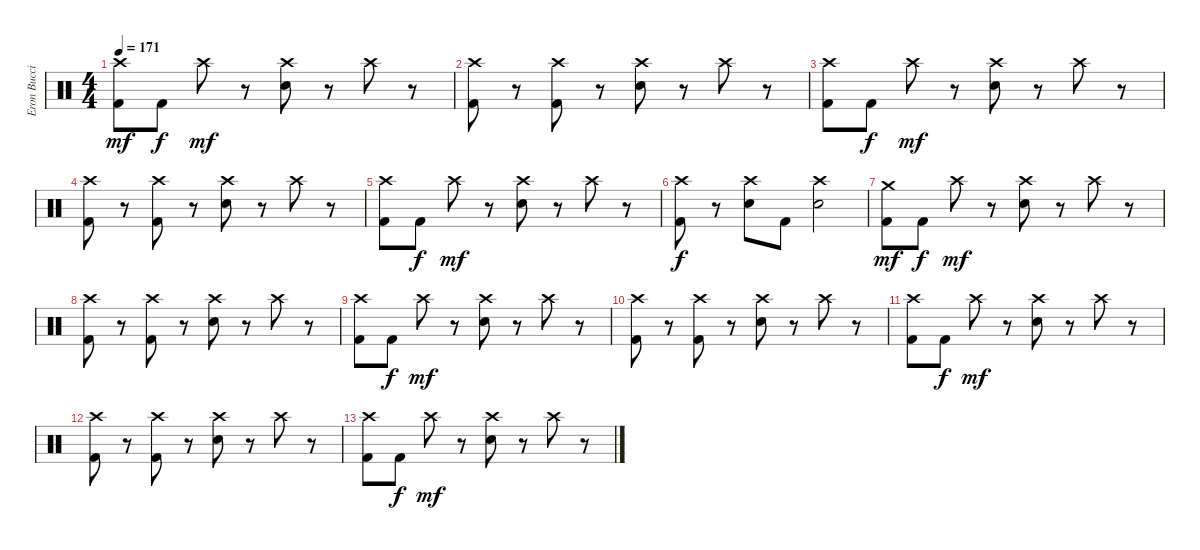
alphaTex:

\track ("Eron Bucciarelli (Drums)" "Eron Bucci") {instrument percussion}
\staff {score}
\articulation defaults
\ts (4 4)
\tempo 171
\clef neutral
\ks c
("Crash high (hit)" "Kick (hit) 2").8{dy mf} "Kick (hit) 2".8{dy f} "Crash high (hit)".8{dy mf} r.8 ("Crash high (hit)" "Snare (hit) 2").8 r.8 "Crash high (hit)".8 r.8 |
("Crash high (hit)" "Kick (hit) 2").8 r.8 ("Crash high (hit)" "Kick (hit) 2").8 r.8 ("Crash high (hit)" "Snare (hit) 2").8 r.8 "Crash high (hit)".8 r.8 |
("Crash high (hit)" "Kick (hit) 2").8 "Kick (hit) 2".8{dy f} "Crash high (hit)".8{dy mf} r.8 ("Crash high (hit)" "Snare (hit) 2").8 r.8 "Crash high (hit)".8 r.8 |
("Crash high (hit)" "Kick (hit) 2").8 r.8 ("Crash high (hit)" "Kick (hit) 2").8 r.8 ("Crash high (hit)" "Snare (hit) 2").8 r.8 "Crash high (hit)".8 r.8 |
("Crash high (hit)" "Kick (hit) 2").8 "Kick (hit) 2".8{dy f} "Crash high (hit)".8{dy mf} r.8 ("Crash high (hit)" "Snare (hit) 2").8 r.8 "Crash high (hit)".8 r.8 |
("Crash high (hit)" "Kick (hit) 2").8{dy f} r.8 ("Crash high (hit)" "Snare (hit) 2").8 "Kick (hit) 2".8 ("Crash high (hit)" "Snare (hit) 2").2 |
("Crash medium (hit)" "Kick (hit) 2").8{dy mf} "Kick (hit) 2".8{dy f} "Crash high (hit)".8{dy mf} r.8 ("Crash high (hit)" "Snare (hit) 2").8 r.8 "Crash high (hit)".8 r.8 |
("Crash high (hit)" "Kick (hit) 2").8 r.8 ("Crash high (hit)" "Kick (hit) 2").8 r.8 ("Crash high (hit)" "Snare (hit) 2").8 r.8 "Crash high (hit)".8 r.8 |
("Crash high (hit)" "Kick (hit) 2").8 "Kick (hit) 2".8{dy f} "Crash high (hit)".8{dy mf} r.8 ("Crash high (hit)" "Snare (hit) 2").8 r.8 "Crash high (hit)".8 r.8 |
("Crash high (hit)" "Kick (hit) 2").8 r.8 ("Crash high (hit)" "Kick (hit) 2").8 r.8 ("Crash high (hit)" "Snare (hit) 2").8 r.8 "Crash high (hit)".8 r.8 |
("Crash high (hit)" "Kick (hit) 2").8 "Kick (hit) 2".8{dy f} "Crash high (hit)".8{dy mf} r.8 ("Crash high (hit)" "Snare (hit) 2").8 r.8 "Crash high (hit)".8 r.8 |
("Crash high (hit)" "Kick (hit) 2").8 r.8 ("Crash high (hit)" "Kick (hit) 2").8 r.8 ("Crash high (hit)" "Snare (hit) 2").8 r.8 "Crash high (hit)".8 r.8 |
("Crash high (hit)" "Kick (hit) 2").8 "Kick (hit) 2".8{dy f} "Crash high (hit)".8{dy mf} r.8 ("Crash high (hit)" "Snare (hit) 2").8 r.8 "Crash high (hit)".8 r.8
